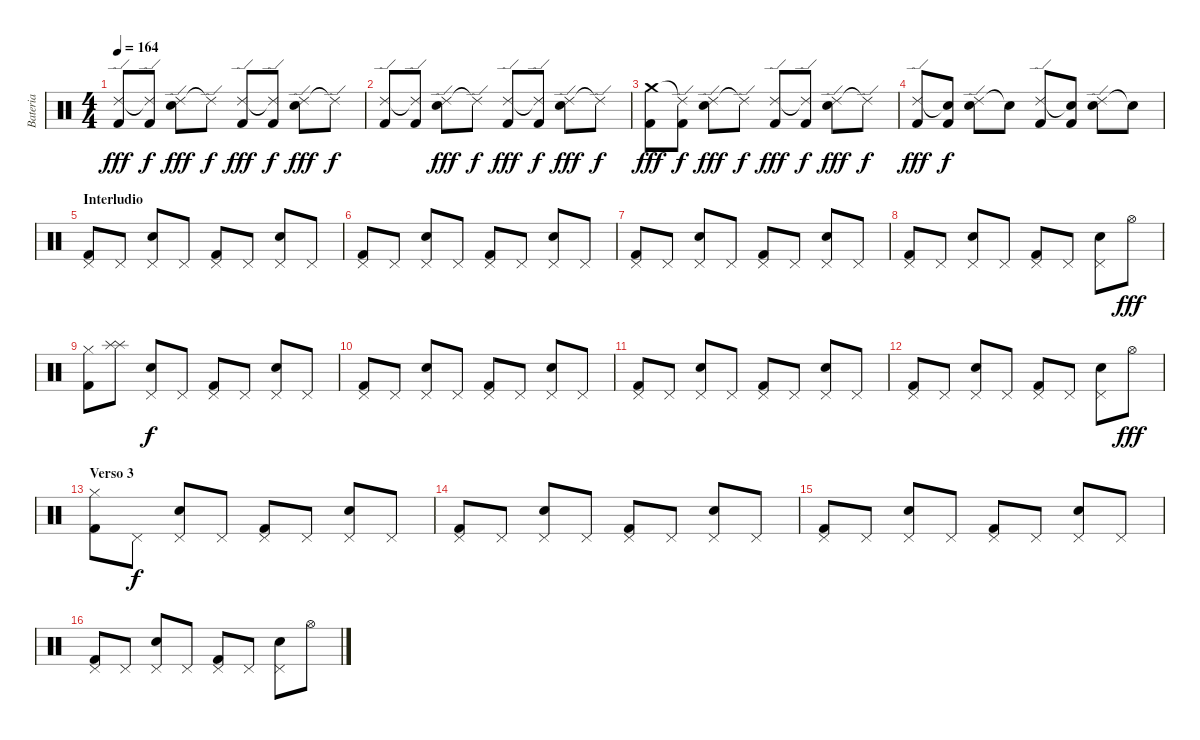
\track ("Bateria" "Bateria") {instrument percussion}
\staff {score}
\articulation defaults
\ts (4 4)
\tempo 164
\clef neutral
\ks c
("Ride (edge) 2" "Kick (hit) 2").8{dy fff} ("Ride (edge) 2"{t} "Kick (hit) 2").8{dy f} ("Ride (edge) 2" "Electric Snare (hit)").8{dy fff} "Ride (edge) 2"{t}.8{dy f} ("Ride (edge) 2" "Kick (hit) 2").8{dy fff} ("Ride (edge) 2"{t} "Kick (hit) 2").8{dy f} ("Ride (edge) 2" "Electric Snare (hit)").8{dy fff} "Ride (edge) 2"{t}.8{dy f} |
("Ride (edge) 2" "Kick (hit) 2").8 ("Ride (edge) 2"{t} "Kick (hit) 2").8 ("Ride (edge) 2" "Electric Snare (hit)").8{dy fff} "Ride (edge) 2"{t}.8{dy f} ("Ride (edge) 2" "Kick (hit) 2").8{dy fff} ("Ride (edge) 2"{t} "Kick (hit) 2").8{dy f} ("Ride (edge) 2" "Electric Snare (hit)").8{dy fff} "Ride (edge) 2"{t}.8{dy f} |
("Crash medium (hit)" "Kick (hit) 2").8{dy fff} ("Ride (edge) 2"{t} "Kick (hit) 2").8{dy f} ("Ride (edge) 2" "Electric Snare (hit)").8{dy fff} "Ride (edge) 2"{t}.8{dy f} ("Ride (edge) 2" "Kick (hit) 2").8{dy fff} ("Ride (edge) 2"{t} "Kick (hit) 2").8{dy f} ("Ride (edge) 2" "Electric Snare (hit)").8{dy fff} "Ride (edge) 2"{t}.8{dy f} |
("Ride (edge) 2" "Kick (hit) 2").8{dy fff} ("Snare (hit)"{t} "Kick (hit) 2").8{dy f} ("Ride (edge) 2" "Electric Snare (hit)").8 "Snare (hit)"{t}.8 ("Ride (edge) 2" "Kick (hit) 2").8 ("Snare (hit)"{t} "Kick (hit) 2").8 ("Ride (edge) 2" "Electric Snare (hit)").8 "Snare (hit)"{t}.8 |
\section ("" "Interludio")
("Pedal Hi-Hat (hit)" "Kick (hit) 2").8 "Pedal Hi-Hat (hit)".8 ("Pedal Hi-Hat (hit)" "Electric Snare (hit)").8 "Pedal Hi-Hat (hit)".8 ("Pedal Hi-Hat (hit)" "Kick (hit) 2").8 "Pedal Hi-Hat (hit)".8 ("Pedal Hi-Hat (hit)" "Electric Snare (hit)").8 "Pedal Hi-Hat (hit)".8 |
("Pedal Hi-Hat (hit)" "Kick (hit) 2").8 "Pedal Hi-Hat (hit)".8 ("Pedal Hi-Hat (hit)" "Electric Snare (hit)").8 "Pedal Hi-Hat (hit)".8 ("Pedal Hi-Hat (hit)" "Kick (hit) 2").8 "Pedal Hi-Hat (hit)".8 ("Pedal Hi-Hat (hit)" "Electric Snare (hit)").8 "Pedal Hi-Hat (hit)".8 |
("Pedal Hi-Hat (hit)" "Kick (hit) 2").8 "Pedal Hi-Hat (hit)".8 ("Pedal Hi-Hat (hit)" "Electric Snare (hit)").8 "Pedal Hi-Hat (hit)".8 ("Pedal Hi-Hat (hit)" "Kick (hit) 2").8 "Pedal Hi-Hat (hit)".8 ("Pedal Hi-Hat (hit)" "Electric Snare (hit)").8 "Pedal Hi-Hat (hit)".8 |
("Pedal Hi-Hat (hit)" "Kick (hit) 2").8 "Pedal Hi-Hat (hit)".8 ("Pedal Hi-Hat (hit)" "Electric Snare (hit)").8 "Pedal Hi-Hat (hit)".8 ("Pedal Hi-Hat (hit)" "Kick (hit) 2").8 "Pedal Hi-Hat (hit)".8 ("Pedal Hi-Hat (hit)" "Electric Snare (hit)").8 "Hi-Hat (open)".8{dy fff} |
("Hi-Hat (closed)" "Kick (hit) 2").8 ("Splash (hit)" "Splash (hit)").8 ("Pedal Hi-Hat (hit)" "Electric Snare (hit)").8{dy f} "Pedal Hi-Hat (hit)".8 ("Pedal Hi-Hat (hit)" "Kick (hit) 2").8 "Pedal Hi-Hat (hit)".8 ("Pedal Hi-Hat (hit)" "Electric Snare (hit)").8 "Pedal Hi-Hat (hit)".8 |
("Pedal Hi-Hat (hit)" "Kick (hit) 2").8 "Pedal Hi-Hat (hit)".8 ("Pedal Hi-Hat (hit)" "Electric Snare (hit)").8 "Pedal Hi-Hat (hit)".8 ("Pedal Hi-Hat (hit)" "Kick (hit) 2").8 "Pedal Hi-Hat (hit)".8 ("Pedal Hi-Hat (hit)" "Electric Snare (hit)").8 "Pedal Hi-Hat (hit)".8 |
("Pedal Hi-Hat (hit)" "Kick (hit) 2").8 "Pedal Hi-Hat (hit)".8 ("Pedal Hi-Hat (hit)" "Electric Snare (hit)").8 "Pedal Hi-Hat (hit)".8 ("Pedal Hi-Hat (hit)" "Kick (hit) 2").8 "Pedal Hi-Hat (hit)".8 ("Pedal Hi-Hat (hit)" "Electric Snare (hit)").8 "Pedal Hi-Hat (hit)".8 |
("Pedal Hi-Hat (hit)" "Kick (hit) 2").8 "Pedal Hi-Hat (hit)".8 ("Pedal Hi-Hat (hit)" "Electric Snare (hit)").8 "Pedal Hi-Hat (hit)".8 ("Pedal Hi-Hat (hit)" "Kick (hit) 2").8 "Pedal Hi-Hat (hit)".8 ("Pedal Hi-Hat (hit)" "Electric Snare (hit)").8 "Hi-Hat (open)".8{dy fff} |
\section ("" "Verso 3")
("Hi-Hat (closed)" "Kick (hit) 2").8 "Pedal Hi-Hat (hit)".8{dy f} ("Pedal Hi-Hat (hit)" "Electric Snare (hit)").8 "Pedal Hi-Hat (hit)".8 ("Pedal Hi-Hat (hit)" "Kick (hit) 2").8 "Pedal Hi-Hat (hit)".8 ("Pedal Hi-Hat (hit)" "Electric Snare (hit)").8 "Pedal Hi-Hat (hit)".8 |
("Pedal Hi-Hat (hit)" "Kick (hit) 2").8 "Pedal Hi-Hat (hit)".8 ("Pedal Hi-Hat (hit)" "Electric Snare (hit)").8 "Pedal Hi-Hat (hit)".8 ("Pedal Hi-Hat (hit)" "Kick (hit) 2").8 "Pedal Hi-Hat (hit)".8 ("Pedal Hi-Hat (hit)" "Electric Snare (hit)").8 "Pedal Hi-Hat (hit)".8 |
("Pedal Hi-Hat (hit)" "Kick (hit) 2").8 "Pedal Hi-Hat (hit)".8 ("Pedal Hi-Hat (hit)" "Electric Snare (hit)").8 "Pedal Hi-Hat (hit)".8 ("Pedal Hi-Hat (hit)" "Kick (hit) 2").8 "Pedal Hi-Hat (hit)".8 ("Pedal Hi-Hat (hit)" "Electric Snare (hit)").8 "Pedal Hi-Hat (hit)".8 |
("Pedal Hi-Hat (hit)" "Kick (hit) 2").8 "Pedal Hi-Hat (hit)".8 ("Pedal Hi-Hat (hit)" "Electric Snare (hit)").8 "Pedal Hi-Hat (hit)".8 ("Pedal Hi-Hat (hit)" "Kick (hit) 2").8 "Pedal Hi-Hat (hit)".8 ("Pedal Hi-Hat (hit)" "Electric Snare (hit)").8 "Hi-Hat (open)".8
